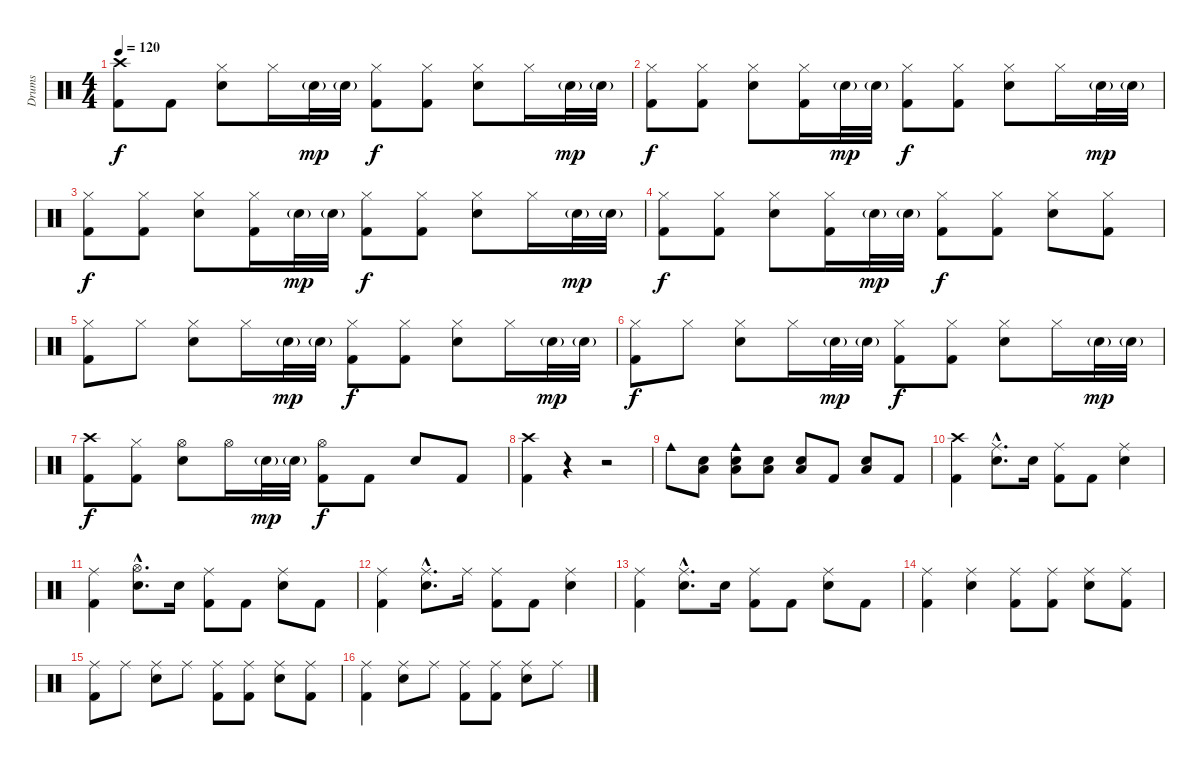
\track ("Drums" "Drums") {instrument percussion}
\staff {score}
\articulation defaults
\ts (4 4)
\tempo 120
\clef neutral
\ks c
("Crash high (hit)" "Kick (hit) 2").8{dy f} "Kick (hit) 2".8 ("Hi-Hat (closed)" "Snare (hit) 2").8 "Hi-Hat (closed)".16 "Snare (hit) 2"{g}.32{dy mp} "Snare (hit) 2"{g}.32 ("Hi-Hat (closed)" "Kick (hit) 2").8{dy f} ("Hi-Hat (closed)" "Kick (hit) 2").8 ("Hi-Hat (closed)" "Snare (hit) 2").8 "Hi-Hat (closed)".16 "Snare (hit) 2"{g}.32{dy mp} "Snare (hit) 2"{g}.32 |
("Hi-Hat (closed)" "Kick (hit) 2").8{dy f} ("Hi-Hat (closed)" "Kick (hit) 2").8 ("Hi-Hat (closed)" "Snare (hit) 2").8 ("Hi-Hat (closed)" "Kick (hit) 2").16 "Snare (hit) 2"{g}.32{dy mp} "Snare (hit) 2"{g}.32 ("Hi-Hat (closed)" "Kick (hit) 2").8{dy f} ("Hi-Hat (closed)" "Kick (hit) 2").8 ("Hi-Hat (closed)" "Snare (hit) 2").8 "Hi-Hat (closed)".16 "Snare (hit) 2"{g}.32{dy mp} "Snare (hit) 2"{g}.32 |
("Hi-Hat (closed)" "Kick (hit) 2").8{dy f} ("Hi-Hat (closed)" "Kick (hit) 2").8 ("Hi-Hat (closed)" "Snare (hit) 2").8 ("Hi-Hat (closed)" "Kick (hit) 2").16 "Snare (hit) 2"{g}.32{dy mp} "Snare (hit) 2"{g}.32 ("Hi-Hat (closed)" "Kick (hit) 2").8{dy f} ("Hi-Hat (closed)" "Kick (hit) 2").8 ("Hi-Hat (closed)" "Snare (hit) 2").8 "Hi-Hat (closed)".16 "Snare (hit) 2"{g}.32{dy mp} "Snare (hit) 2"{g}.32 |
("Hi-Hat (closed)" "Kick (hit) 2").8{dy f} ("Hi-Hat (closed)" "Kick (hit) 2").8 ("Hi-Hat (closed)" "Snare (hit) 2").8 ("Hi-Hat (closed)" "Kick (hit) 2").16 "Snare (hit) 2"{g}.32{dy mp} "Snare (hit) 2"{g}.32 ("Hi-Hat (closed)" "Kick (hit) 2").8{dy f} ("Hi-Hat (closed)" "Kick (hit) 2").8 ("Hi-Hat (closed)" "Snare (hit) 2").8 ("Hi-Hat (closed)" "Kick (hit) 2").8 |
("Hi-Hat (closed)" "Kick (hit) 2").8 "Hi-Hat (closed)".8 ("Hi-Hat (closed)" "Snare (hit) 2").8 "Hi-Hat (closed)".16 "Snare (hit) 2"{g}.32{dy mp} "Snare (hit) 2"{g}.32 ("Hi-Hat (closed)" "Kick (hit) 2").8{dy f} ("Hi-Hat (closed)" "Kick (hit) 2").8 ("Hi-Hat (closed)" "Snare (hit) 2").8 "Hi-Hat (closed)".16 "Snare (hit) 2"{g}.32{dy mp} "Snare (hit) 2"{g}.32 |
("Hi-Hat (closed)" "Kick (hit) 2").8{dy f} "Hi-Hat (closed)".8 ("Hi-Hat (closed)" "Snare (hit) 2").8 "Hi-Hat (closed)".16 "Snare (hit) 2"{g}.32{dy mp} "Snare (hit) 2"{g}.32 ("Hi-Hat (closed)" "Kick (hit) 2").8{dy f} ("Hi-Hat (closed)" "Kick (hit) 2").8 ("Hi-Hat (closed)" "Snare (hit) 2").8 "Hi-Hat (closed)".16 "Snare (hit) 2"{g}.32{dy mp} "Snare (hit) 2"{g}.32 |
("Crash high (hit)" "Kick (hit) 2").8{dy f} ("Hi-Hat (closed)" "Kick (hit) 2").8 ("Hi-Hat (open)" "Snare (hit) 2").8 "Hi-Hat (open)".16 "Snare (hit) 2"{g}.32{dy mp} "Snare (hit) 2"{g}.32 ("Hi-Hat (open)" "Kick (hit) 2").8{dy f} "Kick (hit) 2".8 "Snare (hit) 2".8 "Kick (hit) 2".8 |
("Crash high (hit)" "Kick (hit) 2").4 r.4 r.2 |
"Cowbell medium (hit)".8 ("Snare (hit) 2" "Low Tom (hit)").8 ("Snare (hit) 2" "Low Tom (hit)" "Cowbell medium (hit)").8 ("Snare (hit) 2" "Low Tom (hit)").8 ("Snare (hit) 2" "Low Tom (hit)").8 "Kick (hit) 2".8 ("Snare (hit) 2" "Low Tom (hit)").8 "Kick (hit) 2".8 |
("Crash high (hit)" "Kick (hit) 2").4 ("Ride (middle)"{hac} "Snare (hit) 2"{hac}).8{d} "Snare (hit) 2".16 ("Ride (middle)" "Kick (hit) 2").8 "Kick (hit) 2".8 ("Ride (middle)" "Snare (hit) 2").4 |
("Ride (middle)" "Kick (hit) 2").4 ("Hi-Hat (open)"{hac} "Snare (hit) 2"{hac}).8{d} "Snare (hit) 2".16 ("Ride (middle)" "Kick (hit) 2").8 "Kick (hit) 2".8 ("Ride (middle)" "Snare (hit) 2").8 "Kick (hit) 2".8 |
("Ride (middle)" "Kick (hit) 2").4 ("Ride (middle)"{hac} "Snare (hit) 2"{hac}).8{d} "Ride (middle)".16 ("Ride (middle)" "Kick (hit) 2").8 "Kick (hit) 2".8 ("Ride (middle)" "Snare (hit) 2").4 |
("Ride (middle)" "Kick (hit) 2").4 ("Ride (middle)"{hac} "Snare (hit) 2"{hac}).8{d} "Snare (hit) 2".16 ("Ride (middle)" "Kick (hit) 2").8 "Kick (hit) 2".8 ("Ride (middle)" "Snare (hit) 2").8 "Kick (hit) 2".8 |
("Ride (middle)" "Kick (hit) 2").4 ("Ride (middle)" "Snare (hit) 2").4 ("Ride (middle)" "Kick (hit) 2").8 ("Ride (middle)" "Kick (hit) 2").8 ("Ride (middle)" "Snare (hit) 2").8 ("Ride (middle)" "Kick (hit) 2").8 |
("Ride (middle)" "Kick (hit) 2").8 "Ride (middle)".8 ("Ride (middle)" "Snare (hit) 2").8 "Ride (middle)".8 ("Ride (middle)" "Kick (hit) 2").8 ("Ride (middle)" "Kick (hit) 2").8 ("Ride (middle)" "Snare (hit) 2").8 ("Ride (middle)" "Kick (hit) 2").8 |
("Ride (middle)" "Kick (hit) 2").4 ("Ride (middle)" "Snare (hit) 2").8 "Ride (middle)".8 ("Ride (middle)" "Kick (hit) 2").8 ("Ride (middle)" "Kick (hit) 2").8 ("Ride (middle)" "Snare (hit) 2").8 "Ride (middle)".8
